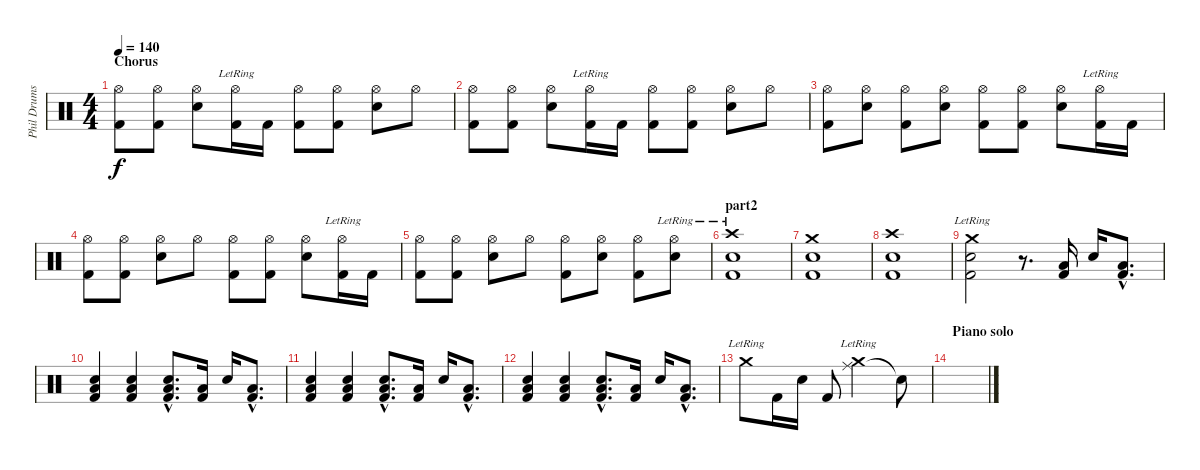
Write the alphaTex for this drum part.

\track ("Phil Drums" "Phil Drums") {instrument percussion}
\staff {score}
\articulation defaults
\ts (4 4)
\section ("" "Chorus")
\tempo 140
\clef neutral
\ks c
("Kick (hit) 2" "Hi-Hat (open)").8{dy f} ("Kick (hit) 2" "Hi-Hat (open)").8 ("Snare (hit) 2" "Hi-Hat (open)").8 ("Kick (hit) 2" "Hi-Hat (open)"{lr}).16 "Kick (hit) 2".16 ("Kick (hit) 2" "Hi-Hat (open)").8 ("Kick (hit) 2" "Hi-Hat (open)").8 ("Snare (hit) 2" "Hi-Hat (open)").8 "Hi-Hat (open)".8 |
("Kick (hit) 2" "Hi-Hat (open)").8 ("Kick (hit) 2" "Hi-Hat (open)").8 ("Snare (hit) 2" "Hi-Hat (open)").8 ("Kick (hit) 2" "Hi-Hat (open)"{lr}).16 "Kick (hit) 2".16 ("Kick (hit) 2" "Hi-Hat (open)").8 ("Kick (hit) 2" "Hi-Hat (open)").8 ("Snare (hit) 2" "Hi-Hat (open)").8 "Hi-Hat (open)".8 |
("Kick (hit) 2" "Hi-Hat (open)").8 ("Snare (hit) 2" "Hi-Hat (open)").8 ("Kick (hit) 2" "Hi-Hat (open)").8 ("Snare (hit) 2" "Hi-Hat (open)").8 ("Kick (hit) 2" "Hi-Hat (open)").8 ("Kick (hit) 2" "Hi-Hat (open)").8 ("Snare (hit) 2" "Hi-Hat (open)").8 ("Kick (hit) 2" "Hi-Hat (open)"{lr}).16 "Kick (hit) 2".16 |
("Kick (hit) 2" "Hi-Hat (open)").8 ("Kick (hit) 2" "Hi-Hat (open)").8 ("Snare (hit) 2" "Hi-Hat (open)").8 "Hi-Hat (open)".8 ("Kick (hit) 2" "Hi-Hat (open)").8 ("Kick (hit) 2" "Hi-Hat (open)").8 ("Snare (hit) 2" "Hi-Hat (open)").8 ("Kick (hit) 2" "Hi-Hat (open)"{lr}).16 "Kick (hit) 2".16 |
("Kick (hit) 2" "Hi-Hat (open)").8 ("Kick (hit) 2" "Hi-Hat (open)").8 ("Snare (hit) 2" "Hi-Hat (open)").8 "Hi-Hat (open)".8 ("Kick (hit) 2" "Hi-Hat (open)").8 ("Snare (hit) 2" "Hi-Hat (open)").8 ("Kick (hit) 2" "Hi-Hat (open)").8 ("Snare (hit) 2" "Hi-Hat (open)"{lr}).8 |
\section ("" "part2")
("Kick (hit) 2" "Snare (hit) 2" "Crash high (hit)"{lr}).1 |
("Kick (hit) 2" "Snare (hit) 2" "Crash medium (hit)").1 |
("Kick (hit) 2" "Snare (hit) 2" "Crash high (hit)").1 |
("Kick (hit) 2" "Snare (hit) 2" "Crash medium (hit)"{lr}).2 r.8{d} ("Kick (hit) 2" "Low Floor Tom (hit)").16 "Snare (hit) 2".16 ("Kick (hit) 2"{hac} "Low Floor Tom (hit)"{hac}).8{d} |
("Kick (hit) 2" "Snare (hit) 2" "Low Floor Tom (hit)").4 ("Kick (hit) 2" "Snare (hit) 2" "Low Floor Tom (hit)").4 ("Kick (hit) 2"{hac} "Snare (hit) 2"{hac} "Low Floor Tom (hit)"{hac}).8{d} ("Kick (hit) 2" "Low Floor Tom (hit)").16 "Snare (hit) 2".16 ("Kick (hit) 2"{hac} "Low Floor Tom (hit)"{hac}).8{d} |
("Kick (hit) 2" "Snare (hit) 2" "Low Floor Tom (hit)").4 ("Kick (hit) 2" "Snare (hit) 2" "Low Floor Tom (hit)").4 ("Kick (hit) 2"{hac} "Snare (hit) 2"{hac} "Low Floor Tom (hit)"{hac}).8{d} ("Kick (hit) 2" "Low Floor Tom (hit)").16 "Snare (hit) 2".16 ("Kick (hit) 2"{hac} "Low Floor Tom (hit)"{hac}).8{d} |
("Kick (hit) 2" "Snare (hit) 2" "Low Floor Tom (hit)").4 ("Kick (hit) 2" "Snare (hit) 2" "Low Floor Tom (hit)").4 ("Kick (hit) 2"{hac} "Snare (hit) 2"{hac} "Low Floor Tom (hit)"{hac}).8{d} ("Kick (hit) 2" "Low Floor Tom (hit)").16 "Snare (hit) 2".16 ("Kick (hit) 2"{hac} "Low Floor Tom (hit)"{hac}).8{d} |
"Crash medium (hit)"{lr}.8 "Kick (hit) 2".16 "Snare (hit) 2".16 "Kick (hit) 2".8 ("Ride (middle)"{lr} "Crash medium (hit)"{lr}).2 "Snare (hit)"{t}.8 |
\section ("" "Piano solo")
